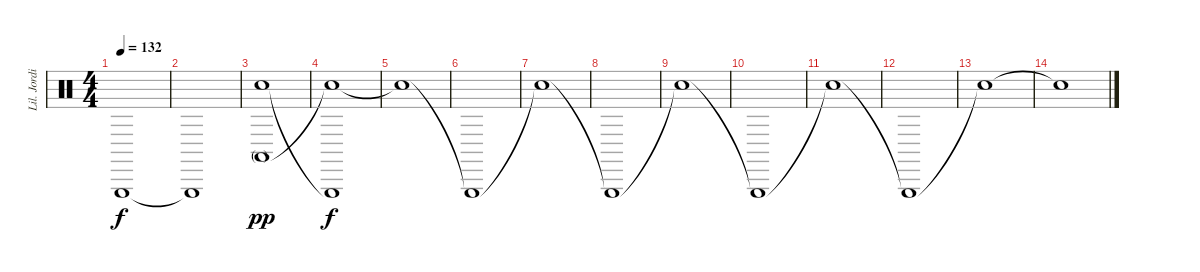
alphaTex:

\track ("Lil. Jordison" "Lil. Jordi") {instrument percussion}
\staff {score}
\articulation defaults
\ts (4 4)
\tempo 132
\clef neutral
\ks c "Triangle (hit)"{t}.1{dy f}
|
"Triangle (hit)"{t}.1 |
("Conga high (mute)" "Snare (hit)").1{dy pp} |
("Snare (hit)"{t} "Triangle (hit)"{t}).1{dy f} |
"Snare (hit)"{t}.1 |
"Triangle (hit)"{t}.1 |
"Snare (hit)"{t}.1 |
"Triangle (hit)"{t}.1 |
"Snare (hit)"{t}.1 |
"Triangle (hit)"{t}.1 |
"Snare (hit)"{t}.1 |
"Triangle (hit)"{t}.1 |
"Snare (hit)"{t}.1{volume 0} |
"Snare (hit)"{t}.1{volume 0}
